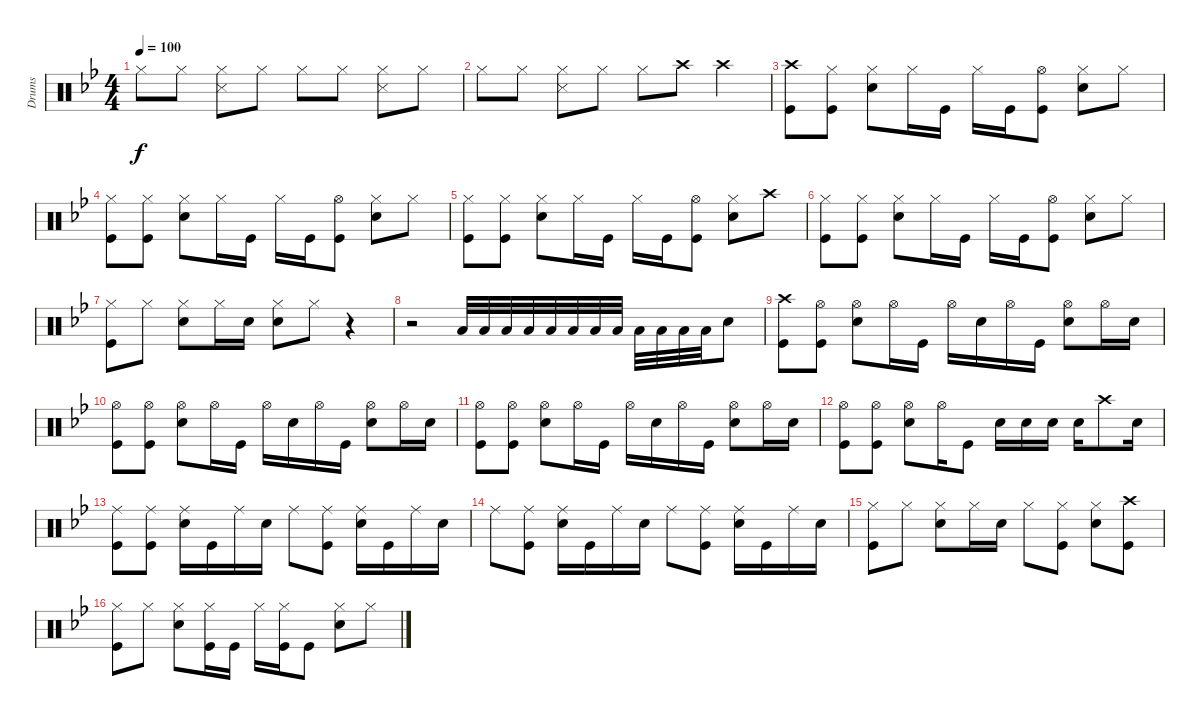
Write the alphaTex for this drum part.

\track ("Drums" "Drums") {instrument percussion}
\staff {score}
\articulation defaults
\ts (4 4)
\tempo 100
\clef neutral
\ks bb "Hi-Hat (closed)".8{dy f} "Hi-Hat (closed)".8
("Hi-Hat (closed)" "Snare (side stick) 3").8 "Hi-Hat (closed)".8 "Hi-Hat (closed)".8 "Hi-Hat (closed)".8 ("Hi-Hat (closed)" "Snare (side stick) 3").8 "Hi-Hat (closed)".8 |
"Hi-Hat (closed)".8 "Hi-Hat (closed)".8 ("Hi-Hat (closed)" "Snare (side stick) 3").8 "Hi-Hat (closed)".8 "Hi-Hat (closed)".8 "Crash high (hit)".8 "Crash high (hit)".4 |
("Crash high (hit)" "Kick (hit)").8 ("Hi-Hat (closed)" "Kick (hit)").8 ("Hi-Hat (closed)" "Snare (hit) 2").8 "Hi-Hat (closed)".16 "Kick (hit)".16 "Hi-Hat (closed)".16 "Kick (hit)".16 ("Hi-Hat (open)" "Kick (hit)").8 ("Hi-Hat (closed)" "Snare (hit) 2").8 "Hi-Hat (closed)".8 |
("Hi-Hat (closed)" "Kick (hit)").8 ("Hi-Hat (closed)" "Kick (hit)").8 ("Hi-Hat (closed)" "Snare (hit) 2").8 "Hi-Hat (closed)".16 "Kick (hit)".16 "Hi-Hat (closed)".16 "Kick (hit)".16 ("Hi-Hat (open)" "Kick (hit)").8 ("Hi-Hat (closed)" "Snare (hit) 2").8 "Hi-Hat (closed)".8 |
("Hi-Hat (closed)" "Kick (hit)").8 ("Hi-Hat (closed)" "Kick (hit)").8 ("Hi-Hat (closed)" "Snare (hit) 2").8 "Hi-Hat (closed)".16 "Kick (hit)".16 "Hi-Hat (closed)".16 "Kick (hit)".16 ("Hi-Hat (open)" "Kick (hit)").8 ("Hi-Hat (closed)" "Snare (hit) 2").8 "Crash high (hit)".8 |
("Hi-Hat (closed)" "Kick (hit)").8 ("Hi-Hat (closed)" "Kick (hit)").8 ("Hi-Hat (closed)" "Snare (hit) 2").8 "Hi-Hat (closed)".16 "Kick (hit)".16 "Hi-Hat (closed)".16 "Kick (hit)".16 ("Hi-Hat (open)" "Kick (hit)").8 ("Hi-Hat (closed)" "Snare (hit) 2").8 "Hi-Hat (closed)".8 |
("Hi-Hat (closed)" "Kick (hit)").8 "Hi-Hat (closed)".8 ("Hi-Hat (closed)" "Snare (hit) 2").8 "Hi-Hat (closed)".16 "Snare (hit) 2".16 ("Hi-Hat (closed)" "Snare (hit) 2").8 "Hi-Hat (closed)".8 r.4 |
r.2 "Low Floor Tom (hit)".32 "Low Floor Tom (hit)".32 "Low Floor Tom (hit)".32 "Low Floor Tom (hit)".32 "Low Floor Tom (hit)".32 "Low Floor Tom (hit)".32 "Low Floor Tom (hit)".32 "Low Floor Tom (hit)".32 "Low Floor Tom (hit)".32 "Low Floor Tom (hit)".32 "Low Floor Tom (hit)".32 "Low Floor Tom (hit)".32 "Snare (hit) 2".8 |
("Crash high (hit)" "Kick (hit)").8 ("Hi-Hat (open)" "Kick (hit)").8 ("Hi-Hat (open)" "Snare (hit) 2").8 "Hi-Hat (open)".16 "Kick (hit)".16 "Hi-Hat (open)".16 "Snare (hit) 2".16 "Hi-Hat (open)".16 "Kick (hit)".16 ("Hi-Hat (open)" "Snare (hit) 2").8 "Hi-Hat (open)".16 "Snare (hit) 2".16 |
("Hi-Hat (open)" "Kick (hit)").8 ("Hi-Hat (open)" "Kick (hit)").8 ("Hi-Hat (open)" "Snare (hit) 2").8 "Hi-Hat (open)".16 "Kick (hit)".16 "Hi-Hat (open)".16 "Snare (hit) 2".16 "Hi-Hat (open)".16 "Kick (hit)".16 ("Hi-Hat (open)" "Snare (hit) 2").8 "Hi-Hat (open)".16 "Snare (hit) 2".16 |
("Hi-Hat (open)" "Kick (hit)").8 ("Hi-Hat (open)" "Kick (hit)").8 ("Hi-Hat (open)" "Snare (hit) 2").8 "Hi-Hat (open)".16 "Kick (hit)".16 "Hi-Hat (open)".16 "Snare (hit) 2".16 "Hi-Hat (open)".16 "Kick (hit)".16 ("Hi-Hat (open)" "Snare (hit) 2").8 "Hi-Hat (open)".16 "Snare (hit) 2".16 |
("Hi-Hat (open)" "Kick (hit)").8 ("Hi-Hat (open)" "Kick (hit)").8 ("Hi-Hat (open)" "Snare (hit) 2").8 "Hi-Hat (open)".16 "Kick (hit)".8 "Snare (hit) 2".16 "Snare (hit) 2".16 "Snare (hit) 2".16 "Snare (hit) 2".16 "Crash high (hit)".8 "Snare (hit) 2".16 |
("Ride (middle)" "Kick (hit)").8 ("Ride (middle)" "Kick (hit)").8 ("Ride (middle)" "Snare (hit) 2").16 "Kick (hit)".16 "Ride (middle)".16 "Snare (hit) 2".16 "Ride (middle)".8 ("Ride (middle)" "Kick (hit)").8 ("Ride (middle)" "Snare (hit) 2").16 "Kick (hit)".16 "Ride (middle)".16 "Snare (hit) 2".16 |
"Ride (middle)".8 ("Ride (middle)" "Kick (hit)").8 ("Ride (middle)" "Snare (hit) 2").16 "Kick (hit)".16 "Ride (middle)".16 "Snare (hit) 2".16 "Ride (middle)".8 ("Ride (middle)" "Kick (hit)").8 ("Ride (middle)" "Snare (hit) 2").16 "Kick (hit)".16 "Ride (middle)".16 "Snare (hit) 2".16 |
("Hi-Hat (closed)" "Kick (hit)").8 "Hi-Hat (closed)".8 ("Hi-Hat (closed)" "Snare (hit) 2").8 "Hi-Hat (closed)".16 "Snare (hit) 2".16 "Hi-Hat (closed)".8 ("Hi-Hat (closed)" "Kick (hit)").8 ("Hi-Hat (closed)" "Snare (hit) 2").8 ("Crash high (hit)" "Kick (hit)").8 |
("Hi-Hat (closed)" "Kick (hit)").8 "Hi-Hat (closed)".8 ("Hi-Hat (closed)" "Snare (hit) 2").8 ("Hi-Hat (closed)" "Kick (hit)").16 "Kick (hit)".16 "Hi-Hat (closed)".16 ("Hi-Hat (closed)" "Kick (hit)").16 "Kick (hit)".8 ("Hi-Hat (closed)" "Snare (hit) 2").8 "Hi-Hat (closed)".8
